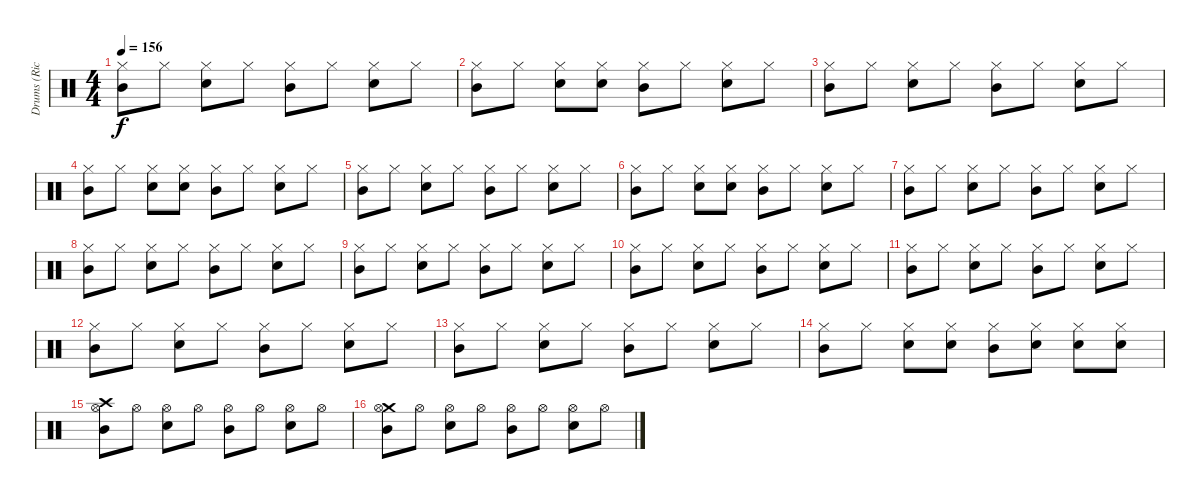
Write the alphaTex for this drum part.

\track ("Drums (Ricky)" "Drums (Ric") {instrument percussion}
\staff {score}
\articulation defaults
\ts (4 4)
\tempo 156
\clef neutral
\ks c
("Mid Tom (hit)" "Hi-Hat (closed)").8{dy f} "Hi-Hat (closed)".8 ("Electric Snare (hit)" "Hi-Hat (closed)").8 "Hi-Hat (closed)".8 ("Mid Tom (hit)" "Hi-Hat (closed)").8 "Hi-Hat (closed)".8 ("Electric Snare (hit)" "Hi-Hat (closed)").8 "Hi-Hat (closed)".8 |
("Mid Tom (hit)" "Hi-Hat (closed)").8 "Hi-Hat (closed)".8 ("Electric Snare (hit)" "Hi-Hat (closed)").8 ("Electric Snare (hit)" "Hi-Hat (closed)").8 ("Mid Tom (hit)" "Hi-Hat (closed)").8 "Hi-Hat (closed)".8 ("Electric Snare (hit)" "Hi-Hat (closed)").8 "Hi-Hat (closed)".8 |
("Mid Tom (hit)" "Hi-Hat (closed)").8 "Hi-Hat (closed)".8 ("Electric Snare (hit)" "Hi-Hat (closed)").8 "Hi-Hat (closed)".8 ("Mid Tom (hit)" "Hi-Hat (closed)").8 "Hi-Hat (closed)".8 ("Electric Snare (hit)" "Hi-Hat (closed)").8 "Hi-Hat (closed)".8 |
("Mid Tom (hit)" "Hi-Hat (closed)").8 "Hi-Hat (closed)".8 ("Electric Snare (hit)" "Hi-Hat (closed)").8 ("Electric Snare (hit)" "Hi-Hat (closed)").8 ("Mid Tom (hit)" "Hi-Hat (closed)").8 "Hi-Hat (closed)".8 ("Electric Snare (hit)" "Hi-Hat (closed)").8 "Hi-Hat (closed)".8 |
("Mid Tom (hit)" "Hi-Hat (closed)").8 "Hi-Hat (closed)".8 ("Electric Snare (hit)" "Hi-Hat (closed)").8 "Hi-Hat (closed)".8 ("Mid Tom (hit)" "Hi-Hat (closed)").8 "Hi-Hat (closed)".8 ("Electric Snare (hit)" "Hi-Hat (closed)").8 "Hi-Hat (closed)".8 |
("Mid Tom (hit)" "Hi-Hat (closed)").8 "Hi-Hat (closed)".8 ("Electric Snare (hit)" "Hi-Hat (closed)").8 ("Electric Snare (hit)" "Hi-Hat (closed)").8 ("Mid Tom (hit)" "Hi-Hat (closed)").8 "Hi-Hat (closed)".8 ("Electric Snare (hit)" "Hi-Hat (closed)").8 "Hi-Hat (closed)".8 |
("Mid Tom (hit)" "Hi-Hat (closed)").8 "Hi-Hat (closed)".8 ("Electric Snare (hit)" "Hi-Hat (closed)").8 "Hi-Hat (closed)".8 ("Mid Tom (hit)" "Hi-Hat (closed)").8 "Hi-Hat (closed)".8 ("Electric Snare (hit)" "Hi-Hat (closed)").8 "Hi-Hat (closed)".8 |
("Mid Tom (hit)" "Hi-Hat (closed)").8 "Hi-Hat (closed)".8 ("Electric Snare (hit)" "Hi-Hat (closed)").8 "Hi-Hat (closed)".8 ("Mid Tom (hit)" "Hi-Hat (closed)").8 "Hi-Hat (closed)".8 ("Electric Snare (hit)" "Hi-Hat (closed)").8 "Hi-Hat (closed)".8 |
("Mid Tom (hit)" "Hi-Hat (closed)").8 "Hi-Hat (closed)".8 ("Electric Snare (hit)" "Hi-Hat (closed)").8 "Hi-Hat (closed)".8 ("Mid Tom (hit)" "Hi-Hat (closed)").8 "Hi-Hat (closed)".8 ("Electric Snare (hit)" "Hi-Hat (closed)").8 "Hi-Hat (closed)".8 |
("Mid Tom (hit)" "Hi-Hat (closed)").8 "Hi-Hat (closed)".8 ("Electric Snare (hit)" "Hi-Hat (closed)").8 "Hi-Hat (closed)".8 ("Mid Tom (hit)" "Hi-Hat (closed)").8 "Hi-Hat (closed)".8 ("Electric Snare (hit)" "Hi-Hat (closed)").8 "Hi-Hat (closed)".8 |
("Mid Tom (hit)" "Hi-Hat (closed)").8 "Hi-Hat (closed)".8 ("Electric Snare (hit)" "Hi-Hat (closed)").8 "Hi-Hat (closed)".8 ("Mid Tom (hit)" "Hi-Hat (closed)").8 "Hi-Hat (closed)".8 ("Electric Snare (hit)" "Hi-Hat (closed)").8 "Hi-Hat (closed)".8 |
("Mid Tom (hit)" "Hi-Hat (closed)").8 "Hi-Hat (closed)".8 ("Electric Snare (hit)" "Hi-Hat (closed)").8 "Hi-Hat (closed)".8 ("Mid Tom (hit)" "Hi-Hat (closed)").8 "Hi-Hat (closed)".8 ("Electric Snare (hit)" "Hi-Hat (closed)").8 "Hi-Hat (closed)".8 |
("Mid Tom (hit)" "Hi-Hat (closed)").8 "Hi-Hat (closed)".8 ("Electric Snare (hit)" "Hi-Hat (closed)").8 "Hi-Hat (closed)".8 ("Mid Tom (hit)" "Hi-Hat (closed)").8 "Hi-Hat (closed)".8 ("Electric Snare (hit)" "Hi-Hat (closed)").8 "Hi-Hat (closed)".8 |
("Mid Tom (hit)" "Hi-Hat (closed)").8 "Hi-Hat (closed)".8 ("Electric Snare (hit)" "Hi-Hat (closed)").8 ("Electric Snare (hit)" "Hi-Hat (closed)").8 ("Mid Tom (hit)" "Hi-Hat (closed)").8 ("Electric Snare (hit)" "Hi-Hat (closed)").8 ("Electric Snare (hit)" "Hi-Hat (closed)").8 ("Electric Snare (hit)" "Hi-Hat (closed)").8 |
("Crash high (hit)" "Mid Tom (hit)" "Hi-Hat (open)").8 "Hi-Hat (open)".8 ("Electric Snare (hit)" "Hi-Hat (open)").8 "Hi-Hat (open)".8 ("Mid Tom (hit)" "Hi-Hat (open)").8 "Hi-Hat (open)".8 ("Electric Snare (hit)" "Hi-Hat (open)").8 "Hi-Hat (open)".8 |
("Crash medium (hit)" "Mid Tom (hit)" "Hi-Hat (open)").8 "Hi-Hat (open)".8 ("Electric Snare (hit)" "Hi-Hat (open)").8 "Hi-Hat (open)".8 ("Mid Tom (hit)" "Hi-Hat (open)").8 "Hi-Hat (open)".8 ("Electric Snare (hit)" "Hi-Hat (open)").8 "Hi-Hat (open)".8
